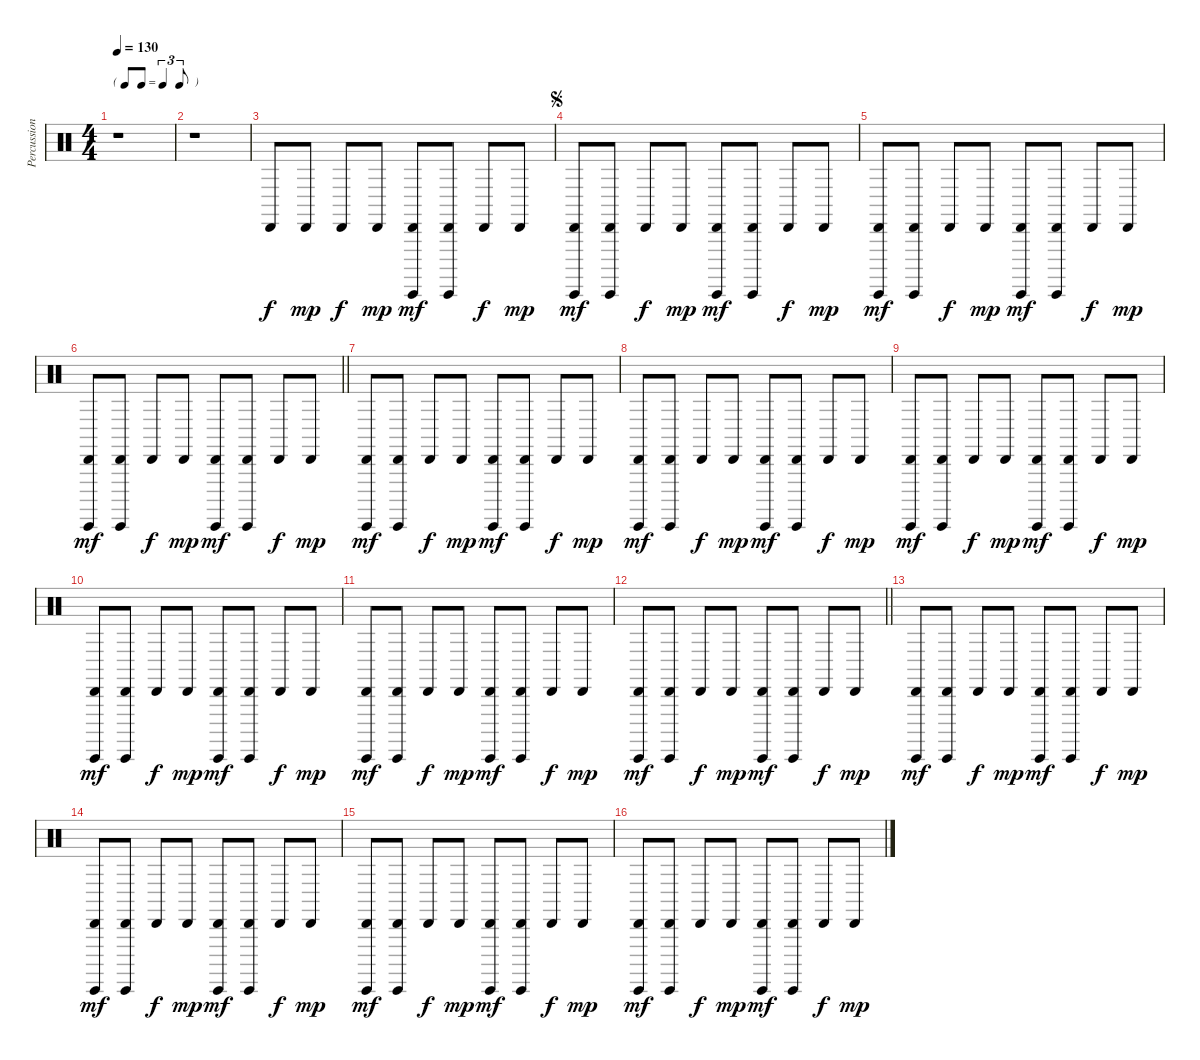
\track ("Percussion" "Percussion") {instrument percussion}
\staff {score}
\articulation defaults
\ts (4 4)
\tf triplet8th
\tempo 130
\clef neutral
\ks c
r.1{dy f} |
r.1 |
"Cabasa (hit)".8 "Cabasa (hit)".8{dy mp} "Cabasa (hit)".8{dy f} "Cabasa (hit)".8{dy mp} ("Cabasa (hit)" "Guiro (hit)").8{dy mf} ("Cabasa (hit)" "Guiro (hit)").8 "Cabasa (hit)".8{dy f} "Cabasa (hit)".8{dy mp} |
\jump segno
("Cabasa (hit)" "Guiro (hit)").8{dy mf} ("Cabasa (hit)" "Guiro (hit)").8 "Cabasa (hit)".8{dy f} "Cabasa (hit)".8{dy mp} ("Cabasa (hit)" "Guiro (hit)").8{dy mf} ("Cabasa (hit)" "Guiro (hit)").8 "Cabasa (hit)".8{dy f} "Cabasa (hit)".8{dy mp} |
("Cabasa (hit)" "Guiro (hit)").8{dy mf} ("Cabasa (hit)" "Guiro (hit)").8 "Cabasa (hit)".8{dy f} "Cabasa (hit)".8{dy mp} ("Cabasa (hit)" "Guiro (hit)").8{dy mf} ("Cabasa (hit)" "Guiro (hit)").8 "Cabasa (hit)".8{dy f} "Cabasa (hit)".8{dy mp} |
\barLineRight lightlight
("Cabasa (hit)" "Guiro (hit)").8{dy mf} ("Cabasa (hit)" "Guiro (hit)").8 "Cabasa (hit)".8{dy f} "Cabasa (hit)".8{dy mp} ("Cabasa (hit)" "Guiro (hit)").8{dy mf} ("Cabasa (hit)" "Guiro (hit)").8 "Cabasa (hit)".8{dy f} "Cabasa (hit)".8{dy mp} |
("Cabasa (hit)" "Guiro (hit)").8{dy mf} ("Cabasa (hit)" "Guiro (hit)").8 "Cabasa (hit)".8{dy f} "Cabasa (hit)".8{dy mp} ("Cabasa (hit)" "Guiro (hit)").8{dy mf} ("Cabasa (hit)" "Guiro (hit)").8 "Cabasa (hit)".8{dy f} "Cabasa (hit)".8{dy mp} |
("Cabasa (hit)" "Guiro (hit)").8{dy mf} ("Cabasa (hit)" "Guiro (hit)").8 "Cabasa (hit)".8{dy f} "Cabasa (hit)".8{dy mp} ("Cabasa (hit)" "Guiro (hit)").8{dy mf} ("Cabasa (hit)" "Guiro (hit)").8 "Cabasa (hit)".8{dy f} "Cabasa (hit)".8{dy mp} |
("Cabasa (hit)" "Guiro (hit)").8{dy mf} ("Cabasa (hit)" "Guiro (hit)").8 "Cabasa (hit)".8{dy f} "Cabasa (hit)".8{dy mp} ("Cabasa (hit)" "Guiro (hit)").8{dy mf} ("Cabasa (hit)" "Guiro (hit)").8 "Cabasa (hit)".8{dy f} "Cabasa (hit)".8{dy mp} |
("Cabasa (hit)" "Guiro (hit)").8{dy mf} ("Cabasa (hit)" "Guiro (hit)").8 "Cabasa (hit)".8{dy f} "Cabasa (hit)".8{dy mp} ("Cabasa (hit)" "Guiro (hit)").8{dy mf} ("Cabasa (hit)" "Guiro (hit)").8 "Cabasa (hit)".8{dy f} "Cabasa (hit)".8{dy mp} |
("Cabasa (hit)" "Guiro (hit)").8{dy mf} ("Cabasa (hit)" "Guiro (hit)").8 "Cabasa (hit)".8{dy f} "Cabasa (hit)".8{dy mp} ("Cabasa (hit)" "Guiro (hit)").8{dy mf} ("Cabasa (hit)" "Guiro (hit)").8 "Cabasa (hit)".8{dy f} "Cabasa (hit)".8{dy mp} |
\barLineRight lightlight
("Cabasa (hit)" "Guiro (hit)").8{dy mf} ("Cabasa (hit)" "Guiro (hit)").8 "Cabasa (hit)".8{dy f} "Cabasa (hit)".8{dy mp} ("Cabasa (hit)" "Guiro (hit)").8{dy mf} ("Cabasa (hit)" "Guiro (hit)").8 "Cabasa (hit)".8{dy f} "Cabasa (hit)".8{dy mp} |
("Cabasa (hit)" "Guiro (hit)").8{dy mf} ("Cabasa (hit)" "Guiro (hit)").8 "Cabasa (hit)".8{dy f} "Cabasa (hit)".8{dy mp} ("Cabasa (hit)" "Guiro (hit)").8{dy mf} ("Cabasa (hit)" "Guiro (hit)").8 "Cabasa (hit)".8{dy f} "Cabasa (hit)".8{dy mp} |
("Cabasa (hit)" "Guiro (hit)").8{dy mf} ("Cabasa (hit)" "Guiro (hit)").8 "Cabasa (hit)".8{dy f} "Cabasa (hit)".8{dy mp} ("Cabasa (hit)" "Guiro (hit)").8{dy mf} ("Cabasa (hit)" "Guiro (hit)").8 "Cabasa (hit)".8{dy f} "Cabasa (hit)".8{dy mp} |
("Cabasa (hit)" "Guiro (hit)").8{dy mf} ("Cabasa (hit)" "Guiro (hit)").8 "Cabasa (hit)".8{dy f} "Cabasa (hit)".8{dy mp} ("Cabasa (hit)" "Guiro (hit)").8{dy mf} ("Cabasa (hit)" "Guiro (hit)").8 "Cabasa (hit)".8{dy f} "Cabasa (hit)".8{dy mp} |
("Cabasa (hit)" "Guiro (hit)").8{dy mf} ("Cabasa (hit)" "Guiro (hit)").8 "Cabasa (hit)".8{dy f} "Cabasa (hit)".8{dy mp} ("Cabasa (hit)" "Guiro (hit)").8{dy mf} ("Cabasa (hit)" "Guiro (hit)").8 "Cabasa (hit)".8{dy f} "Cabasa (hit)".8{dy mp}
